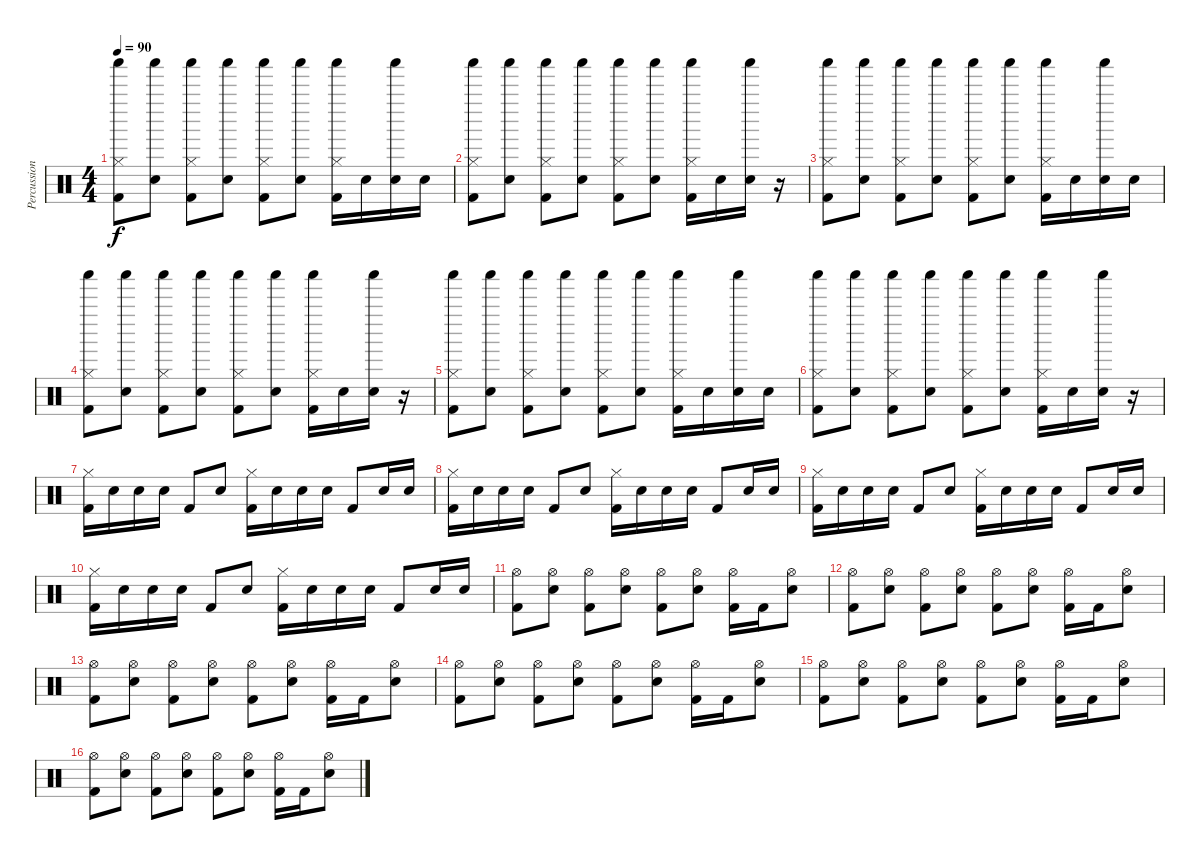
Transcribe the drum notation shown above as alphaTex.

\track ("Percussions" "Percussion") {instrument percussion}
\staff {score}
\articulation defaults
\ts (4 4)
\tempo 90
\clef neutral
\ks c
("Shaker (hit)" "Hi-Hat (closed)" "Kick (hit) 2").8{dy f} ("Shaker (hit)" "Snare (hit) 2").8 ("Shaker (hit)" "Hi-Hat (closed)" "Kick (hit) 2").8 ("Shaker (hit)" "Snare (hit) 2").8 ("Shaker (hit)" "Hi-Hat (closed)" "Kick (hit) 2").8 ("Shaker (hit)" "Snare (hit) 2").8 ("Shaker (hit)" "Hi-Hat (closed)" "Kick (hit) 2").16 "Snare (hit) 2".16 ("Shaker (hit)" "Snare (hit) 2").16 "Snare (hit) 2".16 |
("Shaker (hit)" "Hi-Hat (closed)" "Kick (hit) 2").8 ("Shaker (hit)" "Snare (hit) 2").8 ("Shaker (hit)" "Hi-Hat (closed)" "Kick (hit) 2").8 ("Shaker (hit)" "Snare (hit) 2").8 ("Shaker (hit)" "Hi-Hat (closed)" "Kick (hit) 2").8 ("Shaker (hit)" "Snare (hit) 2").8 ("Shaker (hit)" "Hi-Hat (closed)" "Kick (hit) 2").16 "Snare (hit) 2".16 ("Shaker (hit)" "Snare (hit) 2").16 r.16 |
("Shaker (hit)" "Hi-Hat (closed)" "Kick (hit) 2").8 ("Shaker (hit)" "Snare (hit) 2").8 ("Shaker (hit)" "Hi-Hat (closed)" "Kick (hit) 2").8 ("Shaker (hit)" "Snare (hit) 2").8 ("Shaker (hit)" "Hi-Hat (closed)" "Kick (hit) 2").8 ("Shaker (hit)" "Snare (hit) 2").8 ("Shaker (hit)" "Hi-Hat (closed)" "Kick (hit) 2").16 "Snare (hit) 2".16 ("Shaker (hit)" "Snare (hit) 2").16 "Snare (hit) 2".16 |
("Shaker (hit)" "Hi-Hat (closed)" "Kick (hit) 2").8 ("Shaker (hit)" "Snare (hit) 2").8 ("Shaker (hit)" "Hi-Hat (closed)" "Kick (hit) 2").8 ("Shaker (hit)" "Snare (hit) 2").8 ("Shaker (hit)" "Hi-Hat (closed)" "Kick (hit) 2").8 ("Shaker (hit)" "Snare (hit) 2").8 ("Shaker (hit)" "Hi-Hat (closed)" "Kick (hit) 2").16 "Snare (hit) 2".16 ("Shaker (hit)" "Snare (hit) 2").16 r.16 |
("Shaker (hit)" "Hi-Hat (closed)" "Kick (hit) 2").8 ("Shaker (hit)" "Snare (hit) 2").8 ("Shaker (hit)" "Hi-Hat (closed)" "Kick (hit) 2").8 ("Shaker (hit)" "Snare (hit) 2").8 ("Shaker (hit)" "Hi-Hat (closed)" "Kick (hit) 2").8 ("Shaker (hit)" "Snare (hit) 2").8 ("Shaker (hit)" "Hi-Hat (closed)" "Kick (hit) 2").16 "Snare (hit) 2".16 ("Shaker (hit)" "Snare (hit) 2").16 "Snare (hit) 2".16 |
("Shaker (hit)" "Hi-Hat (closed)" "Kick (hit) 2").8 ("Shaker (hit)" "Snare (hit) 2").8 ("Shaker (hit)" "Hi-Hat (closed)" "Kick (hit) 2").8 ("Shaker (hit)" "Snare (hit) 2").8 ("Shaker (hit)" "Hi-Hat (closed)" "Kick (hit) 2").8 ("Shaker (hit)" "Snare (hit) 2").8 ("Shaker (hit)" "Hi-Hat (closed)" "Kick (hit) 2").16 "Snare (hit) 2".16 ("Shaker (hit)" "Snare (hit) 2").16 r.16 |
("Hi-Hat (closed)" "Kick (hit) 2").16 "Snare (hit) 2".16 "Snare (hit) 2".16 "Snare (hit) 2".16 "Kick (hit) 2".8 "Snare (hit) 2".8 ("Hi-Hat (closed)" "Kick (hit) 2").16 "Snare (hit) 2".16 "Snare (hit) 2".16 "Snare (hit) 2".16 "Kick (hit) 2".8 "Snare (hit) 2".16 "Snare (hit) 2".16 |
("Hi-Hat (closed)" "Kick (hit) 2").16 "Snare (hit) 2".16 "Snare (hit) 2".16 "Snare (hit) 2".16 "Kick (hit) 2".8 "Snare (hit) 2".8 ("Hi-Hat (closed)" "Kick (hit) 2").16 "Snare (hit) 2".16 "Snare (hit) 2".16 "Snare (hit) 2".16 "Kick (hit) 2".8 "Snare (hit) 2".16 "Snare (hit) 2".16 |
("Hi-Hat (closed)" "Kick (hit) 2").16 "Snare (hit) 2".16 "Snare (hit) 2".16 "Snare (hit) 2".16 "Kick (hit) 2".8 "Snare (hit) 2".8 ("Hi-Hat (closed)" "Kick (hit) 2").16 "Snare (hit) 2".16 "Snare (hit) 2".16 "Snare (hit) 2".16 "Kick (hit) 2".8 "Snare (hit) 2".16 "Snare (hit) 2".16 |
("Hi-Hat (closed)" "Kick (hit) 2").16 "Snare (hit) 2".16 "Snare (hit) 2".16 "Snare (hit) 2".16 "Kick (hit) 2".8 "Snare (hit) 2".8 ("Hi-Hat (closed)" "Kick (hit) 2").16 "Snare (hit) 2".16 "Snare (hit) 2".16 "Snare (hit) 2".16 "Kick (hit) 2".8 "Snare (hit) 2".16 "Snare (hit) 2".16 |
("Hi-Hat (open)" "Kick (hit) 2").8 ("Hi-Hat (open)" "Snare (hit) 2").8 ("Hi-Hat (open)" "Kick (hit) 2").8 ("Hi-Hat (open)" "Snare (hit) 2").8 ("Hi-Hat (open)" "Kick (hit) 2").8 ("Hi-Hat (open)" "Snare (hit) 2").8 ("Hi-Hat (open)" "Kick (hit) 2").16 "Kick (hit) 2".16 ("Hi-Hat (open)" "Snare (hit) 2").8 |
("Hi-Hat (open)" "Kick (hit) 2").8 ("Hi-Hat (open)" "Snare (hit) 2").8 ("Hi-Hat (open)" "Kick (hit) 2").8 ("Hi-Hat (open)" "Snare (hit) 2").8 ("Hi-Hat (open)" "Kick (hit) 2").8 ("Hi-Hat (open)" "Snare (hit) 2").8 ("Hi-Hat (open)" "Kick (hit) 2").16 "Kick (hit) 2".16 ("Hi-Hat (open)" "Snare (hit) 2").8 |
("Hi-Hat (open)" "Kick (hit) 2").8 ("Hi-Hat (open)" "Snare (hit) 2").8 ("Hi-Hat (open)" "Kick (hit) 2").8 ("Hi-Hat (open)" "Snare (hit) 2").8 ("Hi-Hat (open)" "Kick (hit) 2").8 ("Hi-Hat (open)" "Snare (hit) 2").8 ("Hi-Hat (open)" "Kick (hit) 2").16 "Kick (hit) 2".16 ("Hi-Hat (open)" "Snare (hit) 2").8 |
("Hi-Hat (open)" "Kick (hit) 2").8 ("Hi-Hat (open)" "Snare (hit) 2").8 ("Hi-Hat (open)" "Kick (hit) 2").8 ("Hi-Hat (open)" "Snare (hit) 2").8 ("Hi-Hat (open)" "Kick (hit) 2").8 ("Hi-Hat (open)" "Snare (hit) 2").8 ("Hi-Hat (open)" "Kick (hit) 2").16 "Kick (hit) 2".16 ("Hi-Hat (open)" "Snare (hit) 2").8 |
("Hi-Hat (open)" "Kick (hit) 2").8 ("Hi-Hat (open)" "Snare (hit) 2").8 ("Hi-Hat (open)" "Kick (hit) 2").8 ("Hi-Hat (open)" "Snare (hit) 2").8 ("Hi-Hat (open)" "Kick (hit) 2").8 ("Hi-Hat (open)" "Snare (hit) 2").8 ("Hi-Hat (open)" "Kick (hit) 2").16 "Kick (hit) 2".16 ("Hi-Hat (open)" "Snare (hit) 2").8 |
("Hi-Hat (open)" "Kick (hit) 2").8 ("Hi-Hat (open)" "Snare (hit) 2").8 ("Hi-Hat (open)" "Kick (hit) 2").8 ("Hi-Hat (open)" "Snare (hit) 2").8 ("Hi-Hat (open)" "Kick (hit) 2").8 ("Hi-Hat (open)" "Snare (hit) 2").8 ("Hi-Hat (open)" "Kick (hit) 2").16 "Kick (hit) 2".16 ("Hi-Hat (open)" "Snare (hit) 2").8
